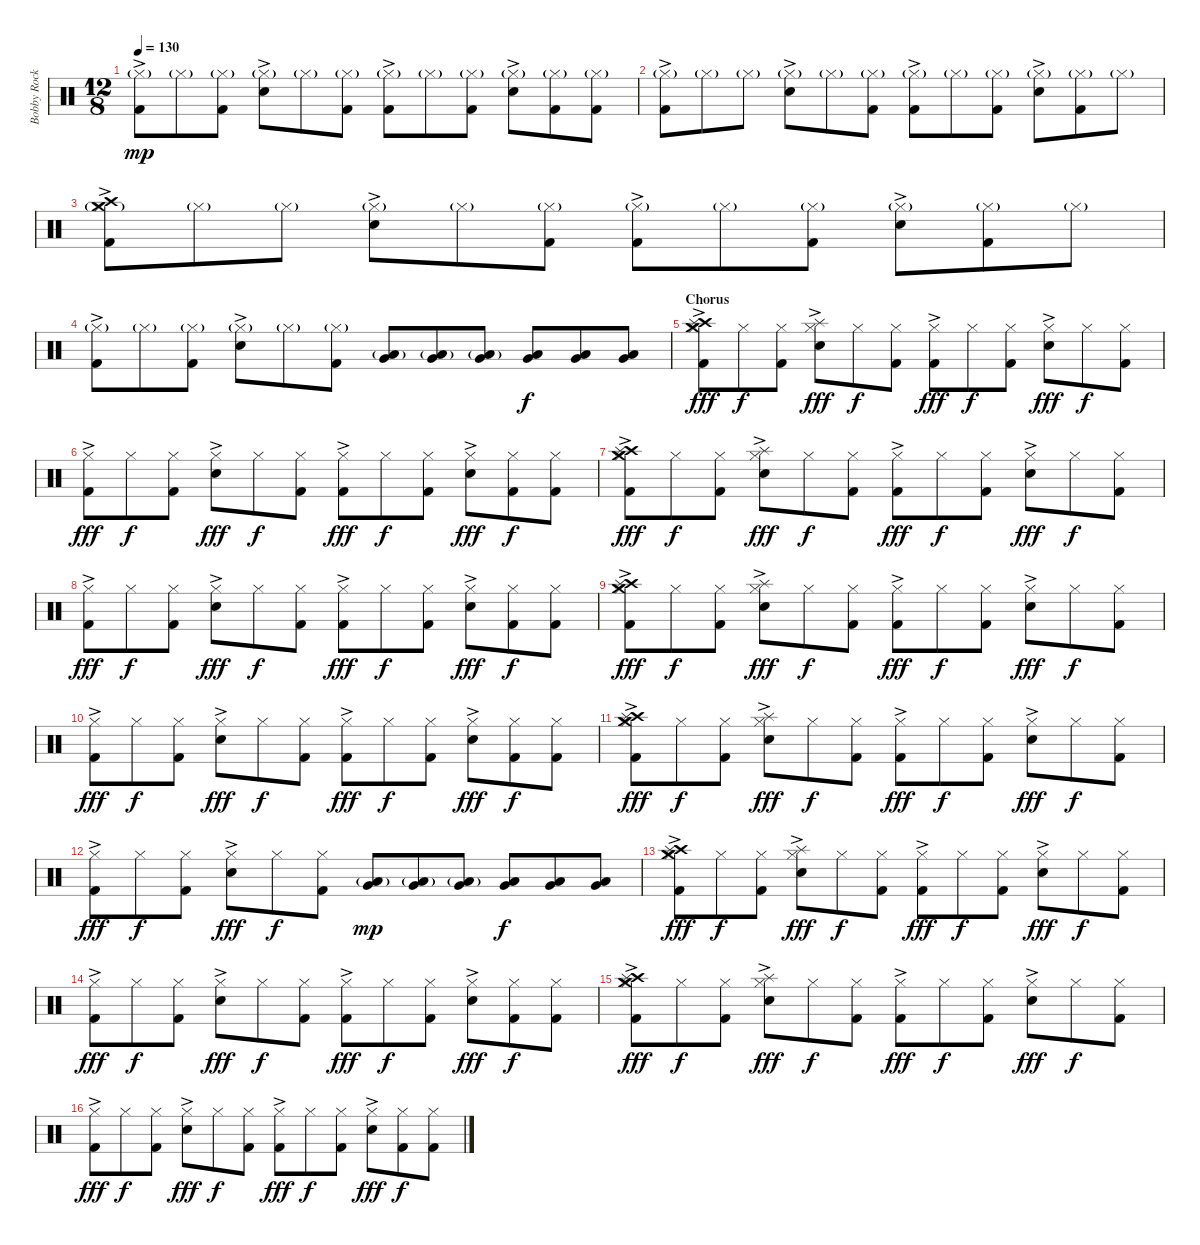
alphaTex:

\track ("Bobby Rock - drums" "Bobby Rock") {instrument percussion}
\staff {score}
\articulation defaults
\ts (12 8)
\tempo 130
\clef neutral
\ks c
("Hi-Hat (closed)"{g ac} "Kick (hit) 2").8{dy mp} "Hi-Hat (closed)"{g}.8 ("Hi-Hat (closed)"{g} "Kick (hit) 2").8 ("Hi-Hat (closed)"{g ac} "Snare (hit) 2").8 "Hi-Hat (closed)"{g}.8 ("Hi-Hat (closed)"{g} "Kick (hit) 2").8 ("Hi-Hat (closed)"{g ac} "Kick (hit) 2").8 "Hi-Hat (closed)"{g}.8 ("Hi-Hat (closed)"{g} "Kick (hit) 2").8 ("Hi-Hat (closed)"{g ac} "Snare (hit) 2").8 ("Hi-Hat (closed)"{g} "Kick (hit) 2").8 ("Hi-Hat (closed)"{g} "Kick (hit) 2").8 |
("Hi-Hat (closed)"{g ac} "Kick (hit) 2").8 "Hi-Hat (closed)"{g}.8 "Hi-Hat (closed)"{g}.8 ("Hi-Hat (closed)"{g ac} "Snare (hit) 2").8 "Hi-Hat (closed)"{g}.8 ("Hi-Hat (closed)"{g} "Kick (hit) 2").8 ("Hi-Hat (closed)"{g ac} "Kick (hit) 2").8 "Hi-Hat (closed)"{g}.8 ("Hi-Hat (closed)"{g} "Kick (hit) 2").8 ("Hi-Hat (closed)"{g ac} "Snare (hit) 2").8 ("Hi-Hat (closed)"{g} "Kick (hit) 2").8 "Hi-Hat (closed)"{g}.8 |
("Hi-Hat (closed)"{g ac} "Crash high (hit)" "Crash medium (hit)" "Kick (hit) 2").8 "Hi-Hat (closed)"{g}.8 "Hi-Hat (closed)"{g}.8 ("Hi-Hat (closed)"{g ac} "Snare (hit) 2").8 "Hi-Hat (closed)"{g}.8 ("Hi-Hat (closed)"{g} "Kick (hit) 2").8 ("Hi-Hat (closed)"{g ac} "Kick (hit) 2").8 "Hi-Hat (closed)"{g}.8 ("Hi-Hat (closed)"{g} "Kick (hit) 2").8 ("Hi-Hat (closed)"{g ac} "Snare (hit) 2").8 ("Hi-Hat (closed)"{g} "Kick (hit) 2").8 "Hi-Hat (closed)"{g}.8 |
("Hi-Hat (closed)"{g ac} "Kick (hit) 2").8 "Hi-Hat (closed)"{g}.8 ("Hi-Hat (closed)"{g} "Kick (hit) 2").8 ("Hi-Hat (closed)"{g ac} "Snare (hit) 2").8 "Hi-Hat (closed)"{g}.8 ("Hi-Hat (closed)"{g} "Kick (hit) 2").8 ("Very Low Tom (hit)" "Low Floor Tom (hit)"{g}).8 ("Very Low Tom (hit)" "Low Floor Tom (hit)"{g}).8 ("Very Low Tom (hit)" "Low Floor Tom (hit)"{g}).8 ("Very Low Tom (hit)" "Low Floor Tom (hit)").8{dy f} ("Very Low Tom (hit)" "Low Floor Tom (hit)").8 ("Very Low Tom (hit)" "Low Floor Tom (hit)").8 |
\section ("" "Chorus")
("Hi-Hat (closed)"{ac} "Crash high (hit)" "Crash medium (hit)" "Splash (hit)" "Kick (hit) 2").8{dy fff} "Hi-Hat (closed)".8{dy f} ("Hi-Hat (closed)" "Kick (hit) 2").8 ("Hi-Hat (closed)"{ac} "Splash (hit)" "Snare (hit) 2").8{dy fff} "Hi-Hat (closed)".8{dy f} ("Hi-Hat (closed)" "Kick (hit) 2").8 ("Hi-Hat (closed)"{ac} "Kick (hit) 2").8{dy fff} "Hi-Hat (closed)".8{dy f} ("Hi-Hat (closed)" "Kick (hit) 2").8 ("Hi-Hat (closed)"{ac} "Snare (hit) 2").8{dy fff} "Hi-Hat (closed)".8{dy f} ("Hi-Hat (closed)" "Kick (hit) 2").8 |
("Hi-Hat (closed)"{ac} "Kick (hit) 2").8{dy fff} "Hi-Hat (closed)".8{dy f} ("Hi-Hat (closed)" "Kick (hit) 2").8 ("Hi-Hat (closed)"{ac} "Snare (hit) 2").8{dy fff} "Hi-Hat (closed)".8{dy f} ("Hi-Hat (closed)" "Kick (hit) 2").8 ("Hi-Hat (closed)"{ac} "Kick (hit) 2").8{dy fff} "Hi-Hat (closed)".8{dy f} ("Hi-Hat (closed)" "Kick (hit) 2").8 ("Hi-Hat (closed)"{ac} "Snare (hit) 2").8{dy fff} ("Hi-Hat (closed)" "Kick (hit) 2").8{dy f} ("Hi-Hat (closed)" "Kick (hit) 2").8 |
("Hi-Hat (closed)"{ac} "Crash high (hit)" "Crash medium (hit)" "Splash (hit)" "Kick (hit) 2").8{dy fff} "Hi-Hat (closed)".8{dy f} ("Hi-Hat (closed)" "Kick (hit) 2").8 ("Hi-Hat (closed)"{ac} "Splash (hit)" "Snare (hit) 2").8{dy fff} "Hi-Hat (closed)".8{dy f} ("Hi-Hat (closed)" "Kick (hit) 2").8 ("Hi-Hat (closed)"{ac} "Kick (hit) 2").8{dy fff} "Hi-Hat (closed)".8{dy f} ("Hi-Hat (closed)" "Kick (hit) 2").8 ("Hi-Hat (closed)"{ac} "Snare (hit) 2").8{dy fff} "Hi-Hat (closed)".8{dy f} ("Hi-Hat (closed)" "Kick (hit) 2").8 |
("Hi-Hat (closed)"{ac} "Kick (hit) 2").8{dy fff} "Hi-Hat (closed)".8{dy f} ("Hi-Hat (closed)" "Kick (hit) 2").8 ("Hi-Hat (closed)"{ac} "Snare (hit) 2").8{dy fff} "Hi-Hat (closed)".8{dy f} ("Hi-Hat (closed)" "Kick (hit) 2").8 ("Hi-Hat (closed)"{ac} "Kick (hit) 2").8{dy fff} "Hi-Hat (closed)".8{dy f} ("Hi-Hat (closed)" "Kick (hit) 2").8 ("Hi-Hat (closed)"{ac} "Snare (hit) 2").8{dy fff} ("Hi-Hat (closed)" "Kick (hit) 2").8{dy f} ("Hi-Hat (closed)" "Kick (hit) 2").8 |
("Hi-Hat (closed)"{ac} "Crash high (hit)" "Crash medium (hit)" "Splash (hit)" "Kick (hit) 2").8{dy fff} "Hi-Hat (closed)".8{dy f} ("Hi-Hat (closed)" "Kick (hit) 2").8 ("Hi-Hat (closed)"{ac} "Splash (hit)" "Snare (hit) 2").8{dy fff} "Hi-Hat (closed)".8{dy f} ("Hi-Hat (closed)" "Kick (hit) 2").8 ("Hi-Hat (closed)"{ac} "Kick (hit) 2").8{dy fff} "Hi-Hat (closed)".8{dy f} ("Hi-Hat (closed)" "Kick (hit) 2").8 ("Hi-Hat (closed)"{ac} "Snare (hit) 2").8{dy fff} "Hi-Hat (closed)".8{dy f} ("Hi-Hat (closed)" "Kick (hit) 2").8 |
("Hi-Hat (closed)"{ac} "Kick (hit) 2").8{dy fff} "Hi-Hat (closed)".8{dy f} ("Hi-Hat (closed)" "Kick (hit) 2").8 ("Hi-Hat (closed)"{ac} "Snare (hit) 2").8{dy fff} "Hi-Hat (closed)".8{dy f} ("Hi-Hat (closed)" "Kick (hit) 2").8 ("Hi-Hat (closed)"{ac} "Kick (hit) 2").8{dy fff} "Hi-Hat (closed)".8{dy f} ("Hi-Hat (closed)" "Kick (hit) 2").8 ("Hi-Hat (closed)"{ac} "Snare (hit) 2").8{dy fff} ("Hi-Hat (closed)" "Kick (hit) 2").8{dy f} ("Hi-Hat (closed)" "Kick (hit) 2").8 |
("Hi-Hat (closed)"{ac} "Crash high (hit)" "Crash medium (hit)" "Splash (hit)" "Kick (hit) 2").8{dy fff} "Hi-Hat (closed)".8{dy f} ("Hi-Hat (closed)" "Kick (hit) 2").8 ("Hi-Hat (closed)"{ac} "Splash (hit)" "Snare (hit) 2").8{dy fff} "Hi-Hat (closed)".8{dy f} ("Hi-Hat (closed)" "Kick (hit) 2").8 ("Hi-Hat (closed)"{ac} "Kick (hit) 2").8{dy fff} "Hi-Hat (closed)".8{dy f} ("Hi-Hat (closed)" "Kick (hit) 2").8 ("Hi-Hat (closed)"{ac} "Snare (hit) 2").8{dy fff} "Hi-Hat (closed)".8{dy f} ("Hi-Hat (closed)" "Kick (hit) 2").8 |
("Hi-Hat (closed)"{ac} "Kick (hit) 2").8{dy fff} "Hi-Hat (closed)".8{dy f} ("Hi-Hat (closed)" "Kick (hit) 2").8 ("Hi-Hat (closed)"{ac} "Snare (hit) 2").8{dy fff} "Hi-Hat (closed)".8{dy f} ("Hi-Hat (closed)" "Kick (hit) 2").8 ("Very Low Tom (hit)" "Low Floor Tom (hit)"{g}).8{dy mp} ("Very Low Tom (hit)" "Low Floor Tom (hit)"{g}).8 ("Very Low Tom (hit)" "Low Floor Tom (hit)"{g}).8 ("Very Low Tom (hit)" "Low Floor Tom (hit)").8{dy f} ("Very Low Tom (hit)" "Low Floor Tom (hit)").8 ("Very Low Tom (hit)" "Low Floor Tom (hit)").8 |
("Hi-Hat (closed)"{ac} "Crash high (hit)" "Crash medium (hit)" "Splash (hit)" "Kick (hit) 2").8{dy fff} "Hi-Hat (closed)".8{dy f} ("Hi-Hat (closed)" "Kick (hit) 2").8 ("Hi-Hat (closed)"{ac} "Splash (hit)" "Snare (hit) 2").8{dy fff} "Hi-Hat (closed)".8{dy f} ("Hi-Hat (closed)" "Kick (hit) 2").8 ("Hi-Hat (closed)"{ac} "Kick (hit) 2").8{dy fff} "Hi-Hat (closed)".8{dy f} ("Hi-Hat (closed)" "Kick (hit) 2").8 ("Hi-Hat (closed)"{ac} "Snare (hit) 2").8{dy fff} "Hi-Hat (closed)".8{dy f} ("Hi-Hat (closed)" "Kick (hit) 2").8 |
("Hi-Hat (closed)"{ac} "Kick (hit) 2").8{dy fff} "Hi-Hat (closed)".8{dy f} ("Hi-Hat (closed)" "Kick (hit) 2").8 ("Hi-Hat (closed)"{ac} "Snare (hit) 2").8{dy fff} "Hi-Hat (closed)".8{dy f} ("Hi-Hat (closed)" "Kick (hit) 2").8 ("Hi-Hat (closed)"{ac} "Kick (hit) 2").8{dy fff} "Hi-Hat (closed)".8{dy f} ("Hi-Hat (closed)" "Kick (hit) 2").8 ("Hi-Hat (closed)"{ac} "Snare (hit) 2").8{dy fff} ("Hi-Hat (closed)" "Kick (hit) 2").8{dy f} ("Hi-Hat (closed)" "Kick (hit) 2").8 |
("Hi-Hat (closed)"{ac} "Crash high (hit)" "Crash medium (hit)" "Splash (hit)" "Kick (hit) 2").8{dy fff} "Hi-Hat (closed)".8{dy f} ("Hi-Hat (closed)" "Kick (hit) 2").8 ("Hi-Hat (closed)"{ac} "Splash (hit)" "Snare (hit) 2").8{dy fff} "Hi-Hat (closed)".8{dy f} ("Hi-Hat (closed)" "Kick (hit) 2").8 ("Hi-Hat (closed)"{ac} "Kick (hit) 2").8{dy fff} "Hi-Hat (closed)".8{dy f} ("Hi-Hat (closed)" "Kick (hit) 2").8 ("Hi-Hat (closed)"{ac} "Snare (hit) 2").8{dy fff} "Hi-Hat (closed)".8{dy f} ("Hi-Hat (closed)" "Kick (hit) 2").8 |
("Hi-Hat (closed)"{ac} "Kick (hit) 2").8{dy fff} "Hi-Hat (closed)".8{dy f} ("Hi-Hat (closed)" "Kick (hit) 2").8 ("Hi-Hat (closed)"{ac} "Snare (hit) 2").8{dy fff} "Hi-Hat (closed)".8{dy f} ("Hi-Hat (closed)" "Kick (hit) 2").8 ("Hi-Hat (closed)"{ac} "Kick (hit) 2").8{dy fff} "Hi-Hat (closed)".8{dy f} ("Hi-Hat (closed)" "Kick (hit) 2").8 ("Hi-Hat (closed)"{ac} "Snare (hit) 2").8{dy fff} ("Hi-Hat (closed)" "Kick (hit) 2").8{dy f} ("Hi-Hat (closed)" "Kick (hit) 2").8
